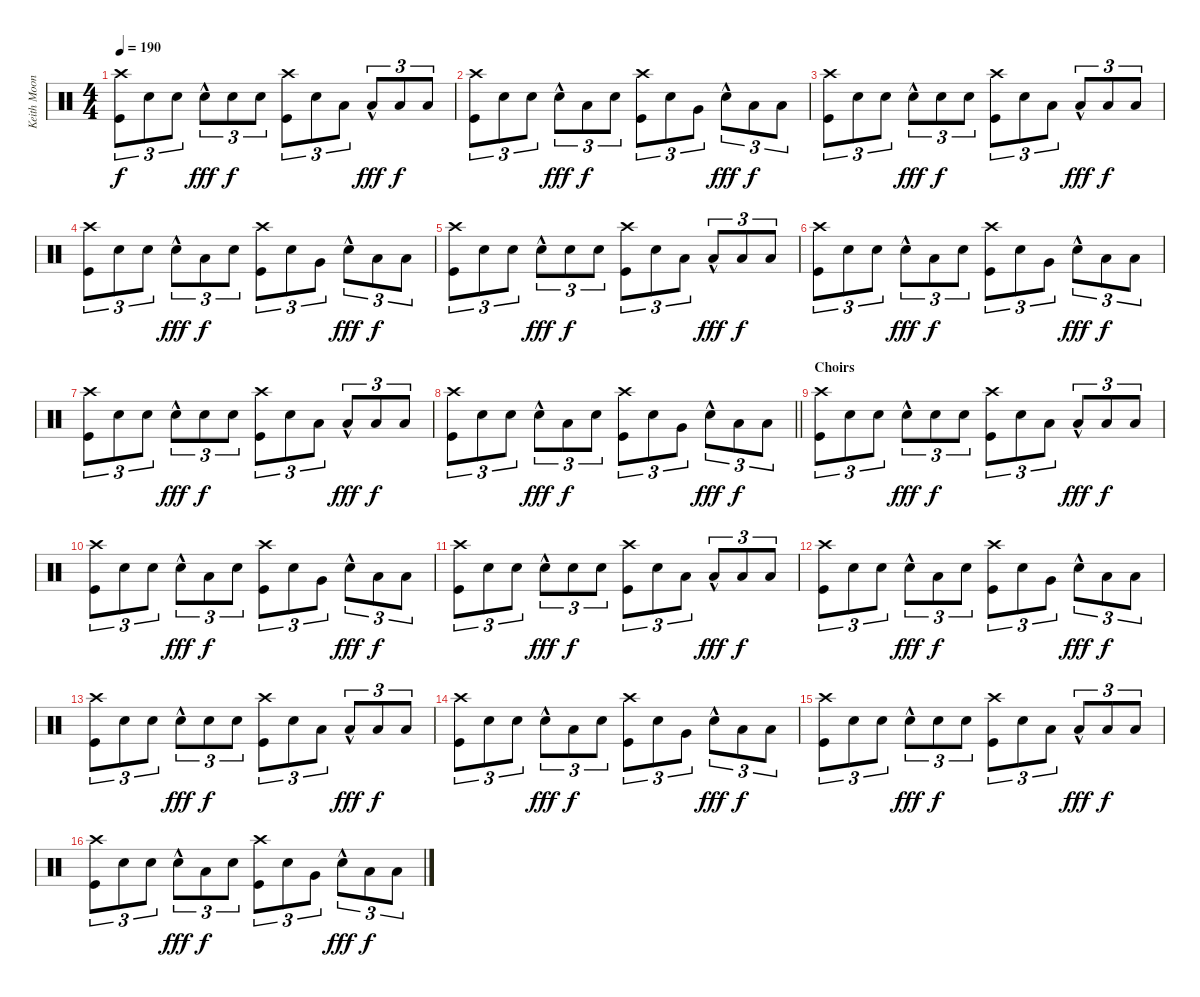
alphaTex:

\track ("Keith Moon" "Keith Moon") {instrument percussion}
\staff {score}
\articulation defaults
\ts (4 4)
\tempo 190
\clef neutral
\ks c
("Crash high (hit)" "Kick (hit)").8{tu (3 2) dy f} "Snare (hit) 2".8{tu (3 2)} "Snare (hit) 2".8{tu (3 2)} "Snare (hit) 2"{hac}.8{tu (3 2) dy fff} "Snare (hit) 2".8{tu (3 2) dy f} "Snare (hit) 2".8{tu (3 2)} ("Crash high (hit)" "Kick (hit)").8{tu (3 2)} "Snare (hit) 2".8{tu (3 2)} "Low Tom (hit)".8{tu (3 2)} "Low Tom (hit)"{hac}.8{tu (3 2) dy fff} "Low Tom (hit)".8{tu (3 2) dy f} "Low Tom (hit)".8{tu (3 2)} |
("Crash high (hit)" "Kick (hit)").8{tu (3 2)} "Snare (hit) 2".8{tu (3 2)} "Snare (hit) 2".8{tu (3 2)} "Snare (hit) 2"{hac}.8{tu (3 2) dy fff} "Low Tom (hit)".8{tu (3 2) dy f} "Snare (hit) 2".8{tu (3 2)} ("Crash high (hit)" "Kick (hit)").8{tu (3 2)} "Snare (hit) 2".8{tu (3 2)} "Very Low Tom (hit)".8{tu (3 2)} "Snare (hit) 2"{hac}.8{tu (3 2) dy fff} "Low Tom (hit)".8{tu (3 2) dy f} "Low Tom (hit)".8{tu (3 2)} |
("Crash high (hit)" "Kick (hit)").8{tu (3 2)} "Snare (hit) 2".8{tu (3 2)} "Snare (hit) 2".8{tu (3 2)} "Snare (hit) 2"{hac}.8{tu (3 2) dy fff} "Snare (hit) 2".8{tu (3 2) dy f} "Snare (hit) 2".8{tu (3 2)} ("Crash high (hit)" "Kick (hit)").8{tu (3 2)} "Snare (hit) 2".8{tu (3 2)} "Low Tom (hit)".8{tu (3 2)} "Low Tom (hit)"{hac}.8{tu (3 2) dy fff} "Low Tom (hit)".8{tu (3 2) dy f} "Low Tom (hit)".8{tu (3 2)} |
("Crash high (hit)" "Kick (hit)").8{tu (3 2)} "Snare (hit) 2".8{tu (3 2)} "Snare (hit) 2".8{tu (3 2)} "Snare (hit) 2"{hac}.8{tu (3 2) dy fff} "Low Tom (hit)".8{tu (3 2) dy f} "Snare (hit) 2".8{tu (3 2)} ("Crash high (hit)" "Kick (hit)").8{tu (3 2)} "Snare (hit) 2".8{tu (3 2)} "Very Low Tom (hit)".8{tu (3 2)} "Snare (hit) 2"{hac}.8{tu (3 2) dy fff} "Low Tom (hit)".8{tu (3 2) dy f} "Low Tom (hit)".8{tu (3 2)} |
("Crash high (hit)" "Kick (hit)").8{tu (3 2)} "Snare (hit) 2".8{tu (3 2)} "Snare (hit) 2".8{tu (3 2)} "Snare (hit) 2"{hac}.8{tu (3 2) dy fff} "Snare (hit) 2".8{tu (3 2) dy f} "Snare (hit) 2".8{tu (3 2)} ("Crash high (hit)" "Kick (hit)").8{tu (3 2)} "Snare (hit) 2".8{tu (3 2)} "Low Tom (hit)".8{tu (3 2)} "Low Tom (hit)"{hac}.8{tu (3 2) dy fff} "Low Tom (hit)".8{tu (3 2) dy f} "Low Tom (hit)".8{tu (3 2)} |
("Crash high (hit)" "Kick (hit)").8{tu (3 2)} "Snare (hit) 2".8{tu (3 2)} "Snare (hit) 2".8{tu (3 2)} "Snare (hit) 2"{hac}.8{tu (3 2) dy fff} "Low Tom (hit)".8{tu (3 2) dy f} "Snare (hit) 2".8{tu (3 2)} ("Crash high (hit)" "Kick (hit)").8{tu (3 2)} "Snare (hit) 2".8{tu (3 2)} "Very Low Tom (hit)".8{tu (3 2)} "Snare (hit) 2"{hac}.8{tu (3 2) dy fff} "Low Tom (hit)".8{tu (3 2) dy f} "Low Tom (hit)".8{tu (3 2)} |
("Crash high (hit)" "Kick (hit)").8{tu (3 2)} "Snare (hit) 2".8{tu (3 2)} "Snare (hit) 2".8{tu (3 2)} "Snare (hit) 2"{hac}.8{tu (3 2) dy fff} "Snare (hit) 2".8{tu (3 2) dy f} "Snare (hit) 2".8{tu (3 2)} ("Crash high (hit)" "Kick (hit)").8{tu (3 2)} "Snare (hit) 2".8{tu (3 2)} "Low Tom (hit)".8{tu (3 2)} "Low Tom (hit)"{hac}.8{tu (3 2) dy fff} "Low Tom (hit)".8{tu (3 2) dy f} "Low Tom (hit)".8{tu (3 2)} |
\barLineRight lightlight
("Crash high (hit)" "Kick (hit)").8{tu (3 2)} "Snare (hit) 2".8{tu (3 2)} "Snare (hit) 2".8{tu (3 2)} "Snare (hit) 2"{hac}.8{tu (3 2) dy fff} "Low Tom (hit)".8{tu (3 2) dy f} "Snare (hit) 2".8{tu (3 2)} ("Crash high (hit)" "Kick (hit)").8{tu (3 2)} "Snare (hit) 2".8{tu (3 2)} "Very Low Tom (hit)".8{tu (3 2)} "Snare (hit) 2"{hac}.8{tu (3 2) dy fff} "Low Tom (hit)".8{tu (3 2) dy f} "Low Tom (hit)".8{tu (3 2)} |
\section ("" "Choirs")
("Crash high (hit)" "Kick (hit)").8{tu (3 2)} "Snare (hit) 2".8{tu (3 2)} "Snare (hit) 2".8{tu (3 2)} "Snare (hit) 2"{hac}.8{tu (3 2) dy fff} "Snare (hit) 2".8{tu (3 2) dy f} "Snare (hit) 2".8{tu (3 2)} ("Crash high (hit)" "Kick (hit)").8{tu (3 2)} "Snare (hit) 2".8{tu (3 2)} "Low Tom (hit)".8{tu (3 2)} "Low Tom (hit)"{hac}.8{tu (3 2) dy fff} "Low Tom (hit)".8{tu (3 2) dy f} "Low Tom (hit)".8{tu (3 2)} |
("Crash high (hit)" "Kick (hit)").8{tu (3 2)} "Snare (hit) 2".8{tu (3 2)} "Snare (hit) 2".8{tu (3 2)} "Snare (hit) 2"{hac}.8{tu (3 2) dy fff} "Low Tom (hit)".8{tu (3 2) dy f} "Snare (hit) 2".8{tu (3 2)} ("Crash high (hit)" "Kick (hit)").8{tu (3 2)} "Snare (hit) 2".8{tu (3 2)} "Very Low Tom (hit)".8{tu (3 2)} "Snare (hit) 2"{hac}.8{tu (3 2) dy fff} "Low Tom (hit)".8{tu (3 2) dy f} "Low Tom (hit)".8{tu (3 2)} |
("Crash high (hit)" "Kick (hit)").8{tu (3 2)} "Snare (hit) 2".8{tu (3 2)} "Snare (hit) 2".8{tu (3 2)} "Snare (hit) 2"{hac}.8{tu (3 2) dy fff} "Snare (hit) 2".8{tu (3 2) dy f} "Snare (hit) 2".8{tu (3 2)} ("Crash high (hit)" "Kick (hit)").8{tu (3 2)} "Snare (hit) 2".8{tu (3 2)} "Low Tom (hit)".8{tu (3 2)} "Low Tom (hit)"{hac}.8{tu (3 2) dy fff} "Low Tom (hit)".8{tu (3 2) dy f} "Low Tom (hit)".8{tu (3 2)} |
("Crash high (hit)" "Kick (hit)").8{tu (3 2)} "Snare (hit) 2".8{tu (3 2)} "Snare (hit) 2".8{tu (3 2)} "Snare (hit) 2"{hac}.8{tu (3 2) dy fff} "Low Tom (hit)".8{tu (3 2) dy f} "Snare (hit) 2".8{tu (3 2)} ("Crash high (hit)" "Kick (hit)").8{tu (3 2)} "Snare (hit) 2".8{tu (3 2)} "Very Low Tom (hit)".8{tu (3 2)} "Snare (hit) 2"{hac}.8{tu (3 2) dy fff} "Low Tom (hit)".8{tu (3 2) dy f} "Low Tom (hit)".8{tu (3 2)} |
("Crash high (hit)" "Kick (hit)").8{tu (3 2)} "Snare (hit) 2".8{tu (3 2)} "Snare (hit) 2".8{tu (3 2)} "Snare (hit) 2"{hac}.8{tu (3 2) dy fff} "Snare (hit) 2".8{tu (3 2) dy f} "Snare (hit) 2".8{tu (3 2)} ("Crash high (hit)" "Kick (hit)").8{tu (3 2)} "Snare (hit) 2".8{tu (3 2)} "Low Tom (hit)".8{tu (3 2)} "Low Tom (hit)"{hac}.8{tu (3 2) dy fff} "Low Tom (hit)".8{tu (3 2) dy f} "Low Tom (hit)".8{tu (3 2)} |
("Crash high (hit)" "Kick (hit)").8{tu (3 2)} "Snare (hit) 2".8{tu (3 2)} "Snare (hit) 2".8{tu (3 2)} "Snare (hit) 2"{hac}.8{tu (3 2) dy fff} "Low Tom (hit)".8{tu (3 2) dy f} "Snare (hit) 2".8{tu (3 2)} ("Crash high (hit)" "Kick (hit)").8{tu (3 2)} "Snare (hit) 2".8{tu (3 2)} "Very Low Tom (hit)".8{tu (3 2)} "Snare (hit) 2"{hac}.8{tu (3 2) dy fff} "Low Tom (hit)".8{tu (3 2) dy f} "Low Tom (hit)".8{tu (3 2)} |
("Crash high (hit)" "Kick (hit)").8{tu (3 2)} "Snare (hit) 2".8{tu (3 2)} "Snare (hit) 2".8{tu (3 2)} "Snare (hit) 2"{hac}.8{tu (3 2) dy fff} "Snare (hit) 2".8{tu (3 2) dy f} "Snare (hit) 2".8{tu (3 2)} ("Crash high (hit)" "Kick (hit)").8{tu (3 2)} "Snare (hit) 2".8{tu (3 2)} "Low Tom (hit)".8{tu (3 2)} "Low Tom (hit)"{hac}.8{tu (3 2) dy fff} "Low Tom (hit)".8{tu (3 2) dy f} "Low Tom (hit)".8{tu (3 2)} |
("Crash high (hit)" "Kick (hit)").8{tu (3 2)} "Snare (hit) 2".8{tu (3 2)} "Snare (hit) 2".8{tu (3 2)} "Snare (hit) 2"{hac}.8{tu (3 2) dy fff} "Low Tom (hit)".8{tu (3 2) dy f} "Snare (hit) 2".8{tu (3 2)} ("Crash high (hit)" "Kick (hit)").8{tu (3 2)} "Snare (hit) 2".8{tu (3 2)} "Very Low Tom (hit)".8{tu (3 2)} "Snare (hit) 2"{hac}.8{tu (3 2) dy fff} "Low Tom (hit)".8{tu (3 2) dy f} "Low Tom (hit)".8{tu (3 2)}
